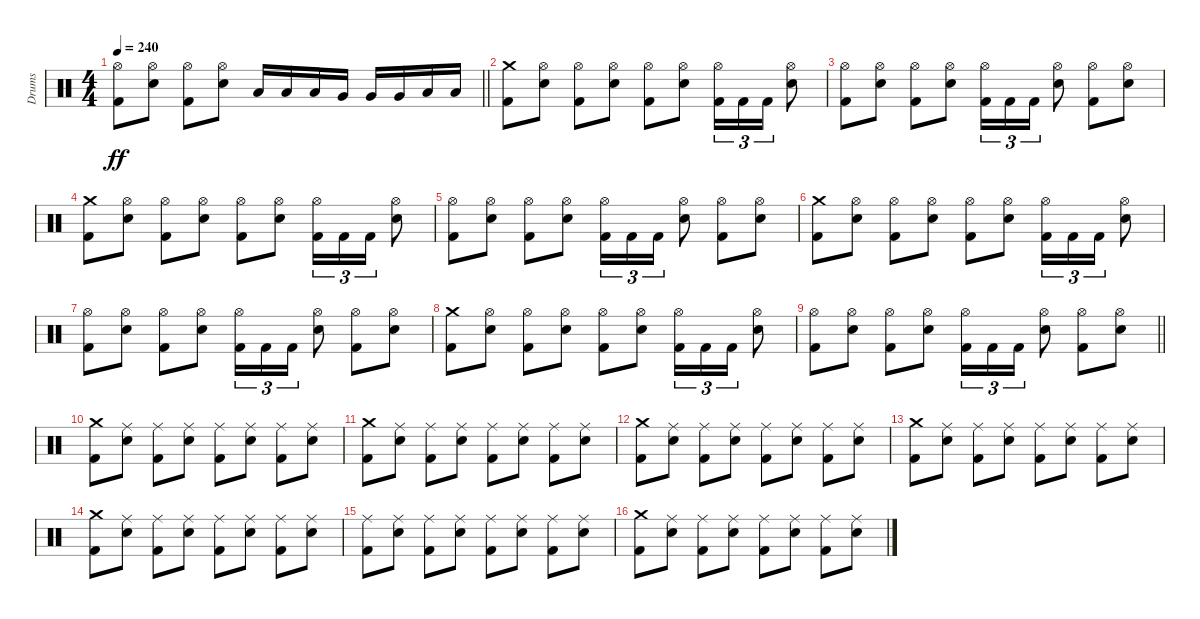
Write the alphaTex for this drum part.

\track ("Drums" "Drums") {instrument percussion}
\staff {score}
\articulation defaults
\ts (4 4)
\tempo 240
\clef neutral
\barLineRight lightlight
\ks c
("Hi-Hat (open)" "Kick (hit) 2").8{dy ff} ("Hi-Hat (open)" "Snare (hit) 2").8 ("Hi-Hat (open)" "Kick (hit) 2").8 ("Hi-Hat (open)" "Snare (hit) 2").8 "Low Tom (hit)".16 "Low Tom (hit)".16 "Low Tom (hit)".16 "Very Low Tom (hit)".16 "Very Low Tom (hit)".16 "Very Low Tom (hit)".16 "Low Floor Tom (hit)".16 "Low Floor Tom (hit)".16 |
("Crash medium (hit)" "Kick (hit) 2").8 ("Hi-Hat (open)" "Snare (hit) 2").8 ("Hi-Hat (open)" "Kick (hit) 2").8 ("Hi-Hat (open)" "Snare (hit) 2").8 ("Hi-Hat (open)" "Kick (hit) 2").8 ("Hi-Hat (open)" "Snare (hit) 2").8 ("Hi-Hat (open)" "Kick (hit) 2").16{tu (3 2)} "Kick (hit) 2".16{tu (3 2)} "Kick (hit) 2".16{tu (3 2)} ("Hi-Hat (open)" "Snare (hit) 2").8 |
("Hi-Hat (open)" "Kick (hit) 2").8 ("Hi-Hat (open)" "Snare (hit) 2").8 ("Hi-Hat (open)" "Kick (hit) 2").8 ("Hi-Hat (open)" "Snare (hit) 2").8 ("Hi-Hat (open)" "Kick (hit) 2").16{tu (3 2)} "Kick (hit) 2".16{tu (3 2)} "Kick (hit) 2".16{tu (3 2)} ("Hi-Hat (open)" "Snare (hit) 2").8 ("Hi-Hat (open)" "Kick (hit) 2").8 ("Hi-Hat (open)" "Snare (hit) 2").8 |
("Crash medium (hit)" "Kick (hit) 2").8 ("Hi-Hat (open)" "Snare (hit) 2").8 ("Hi-Hat (open)" "Kick (hit) 2").8 ("Hi-Hat (open)" "Snare (hit) 2").8 ("Hi-Hat (open)" "Kick (hit) 2").8 ("Hi-Hat (open)" "Snare (hit) 2").8 ("Hi-Hat (open)" "Kick (hit) 2").16{tu (3 2)} "Kick (hit) 2".16{tu (3 2)} "Kick (hit) 2".16{tu (3 2)} ("Hi-Hat (open)" "Snare (hit) 2").8 |
("Hi-Hat (open)" "Kick (hit) 2").8 ("Hi-Hat (open)" "Snare (hit) 2").8 ("Hi-Hat (open)" "Kick (hit) 2").8 ("Hi-Hat (open)" "Snare (hit) 2").8 ("Hi-Hat (open)" "Kick (hit) 2").16{tu (3 2)} "Kick (hit) 2".16{tu (3 2)} "Kick (hit) 2".16{tu (3 2)} ("Hi-Hat (open)" "Snare (hit) 2").8 ("Hi-Hat (open)" "Kick (hit) 2").8 ("Hi-Hat (open)" "Snare (hit) 2").8 |
("Crash medium (hit)" "Kick (hit) 2").8 ("Hi-Hat (open)" "Snare (hit) 2").8 ("Hi-Hat (open)" "Kick (hit) 2").8 ("Hi-Hat (open)" "Snare (hit) 2").8 ("Hi-Hat (open)" "Kick (hit) 2").8 ("Hi-Hat (open)" "Snare (hit) 2").8 ("Hi-Hat (open)" "Kick (hit) 2").16{tu (3 2)} "Kick (hit) 2".16{tu (3 2)} "Kick (hit) 2".16{tu (3 2)} ("Hi-Hat (open)" "Snare (hit) 2").8 |
("Hi-Hat (open)" "Kick (hit) 2").8 ("Hi-Hat (open)" "Snare (hit) 2").8 ("Hi-Hat (open)" "Kick (hit) 2").8 ("Hi-Hat (open)" "Snare (hit) 2").8 ("Hi-Hat (open)" "Kick (hit) 2").16{tu (3 2)} "Kick (hit) 2".16{tu (3 2)} "Kick (hit) 2".16{tu (3 2)} ("Hi-Hat (open)" "Snare (hit) 2").8 ("Hi-Hat (open)" "Kick (hit) 2").8 ("Hi-Hat (open)" "Snare (hit) 2").8 |
("Crash medium (hit)" "Kick (hit) 2").8 ("Hi-Hat (open)" "Snare (hit) 2").8 ("Hi-Hat (open)" "Kick (hit) 2").8 ("Hi-Hat (open)" "Snare (hit) 2").8 ("Hi-Hat (open)" "Kick (hit) 2").8 ("Hi-Hat (open)" "Snare (hit) 2").8 ("Hi-Hat (open)" "Kick (hit) 2").16{tu (3 2)} "Kick (hit) 2".16{tu (3 2)} "Kick (hit) 2".16{tu (3 2)} ("Hi-Hat (open)" "Snare (hit) 2").8 |
\barLineRight lightlight
("Hi-Hat (open)" "Kick (hit) 2").8 ("Hi-Hat (open)" "Snare (hit) 2").8 ("Hi-Hat (open)" "Kick (hit) 2").8 ("Hi-Hat (open)" "Snare (hit) 2").8 ("Hi-Hat (open)" "Kick (hit) 2").16{tu (3 2)} "Kick (hit) 2".16{tu (3 2)} "Kick (hit) 2".16{tu (3 2)} ("Hi-Hat (open)" "Snare (hit) 2").8 ("Hi-Hat (open)" "Kick (hit) 2").8 ("Hi-Hat (open)" "Snare (hit) 2").8 |
("Crash medium (hit)" "Kick (hit) 2").8 ("Ride (middle)" "Snare (hit) 2").8 ("Ride (middle)" "Kick (hit) 2").8 ("Ride (middle)" "Snare (hit) 2").8 ("Ride (middle)" "Kick (hit) 2").8 ("Ride (middle)" "Snare (hit) 2").8 ("Ride (middle)" "Kick (hit) 2").8 ("Ride (middle)" "Snare (hit) 2").8 |
("Crash medium (hit)" "Kick (hit) 2").8 ("Ride (middle)" "Snare (hit) 2").8 ("Ride (middle)" "Kick (hit) 2").8 ("Ride (middle)" "Snare (hit) 2").8 ("Ride (middle)" "Kick (hit) 2").8 ("Ride (middle)" "Snare (hit) 2").8 ("Ride (middle)" "Kick (hit) 2").8 ("Ride (middle)" "Snare (hit) 2").8 |
("Crash medium (hit)" "Kick (hit) 2").8 ("Ride (middle)" "Snare (hit) 2").8 ("Ride (middle)" "Kick (hit) 2").8 ("Ride (middle)" "Snare (hit) 2").8 ("Ride (middle)" "Kick (hit) 2").8 ("Ride (middle)" "Snare (hit) 2").8 ("Ride (middle)" "Kick (hit) 2").8 ("Ride (middle)" "Snare (hit) 2").8 |
("Crash medium (hit)" "Kick (hit) 2").8 ("Ride (middle)" "Snare (hit) 2").8 ("Ride (middle)" "Kick (hit) 2").8 ("Ride (middle)" "Snare (hit) 2").8 ("Ride (middle)" "Kick (hit) 2").8 ("Ride (middle)" "Snare (hit) 2").8 ("Ride (middle)" "Kick (hit) 2").8 ("Ride (middle)" "Snare (hit) 2").8 |
("Crash medium (hit)" "Kick (hit) 2").8 ("Ride (middle)" "Snare (hit) 2").8 ("Ride (middle)" "Kick (hit) 2").8 ("Ride (middle)" "Snare (hit) 2").8 ("Ride (middle)" "Kick (hit) 2").8 ("Ride (middle)" "Snare (hit) 2").8 ("Ride (middle)" "Kick (hit) 2").8 ("Ride (middle)" "Snare (hit) 2").8 |
("Ride (middle)" "Kick (hit) 2").8 ("Ride (middle)" "Snare (hit) 2").8 ("Ride (middle)" "Kick (hit) 2").8 ("Ride (middle)" "Snare (hit) 2").8 ("Ride (middle)" "Kick (hit) 2").8 ("Ride (middle)" "Snare (hit) 2").8 ("Ride (middle)" "Kick (hit) 2").8 ("Ride (middle)" "Snare (hit) 2").8 |
("Crash medium (hit)" "Kick (hit) 2").8 ("Ride (middle)" "Snare (hit) 2").8 ("Ride (middle)" "Kick (hit) 2").8 ("Ride (middle)" "Snare (hit) 2").8 ("Ride (middle)" "Kick (hit) 2").8 ("Ride (middle)" "Snare (hit) 2").8 ("Ride (middle)" "Kick (hit) 2").8 ("Ride (middle)" "Snare (hit) 2").8
